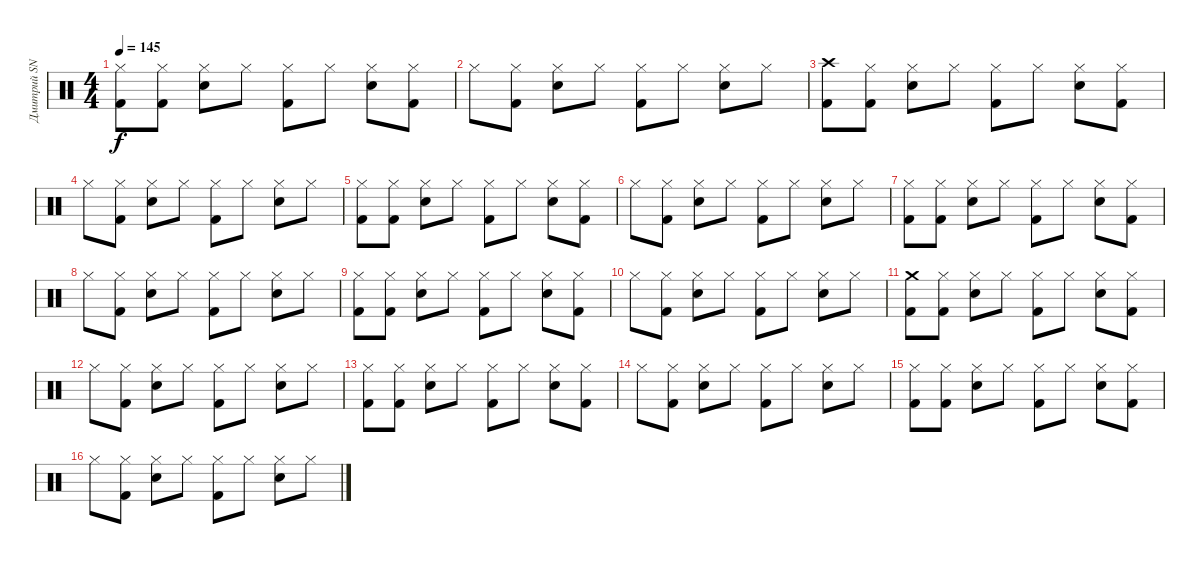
\track ("Дмитрий SNAKE Хакимов" "Дмитрий SN") {instrument percussion}
\staff {score}
\articulation defaults
\ts (4 4)
\tempo 145
\clef neutral
\ks c
("Hi-Hat (closed)" "Kick (hit) 2").8{dy f} ("Hi-Hat (closed)" "Kick (hit) 2").8 ("Hi-Hat (closed)" "Snare (hit) 2").8 "Hi-Hat (closed)".8 ("Hi-Hat (closed)" "Kick (hit) 2").8 "Hi-Hat (closed)".8 ("Hi-Hat (closed)" "Snare (hit) 2").8 ("Hi-Hat (closed)" "Kick (hit) 2").8 |
"Hi-Hat (closed)".8 ("Hi-Hat (closed)" "Kick (hit) 2").8 ("Hi-Hat (closed)" "Snare (hit) 2").8 "Hi-Hat (closed)".8 ("Hi-Hat (closed)" "Kick (hit) 2").8 "Hi-Hat (closed)".8 ("Hi-Hat (closed)" "Snare (hit) 2").8 "Hi-Hat (closed)".8 |
("Crash high (hit)" "Kick (hit) 2").8 ("Hi-Hat (closed)" "Kick (hit) 2").8 ("Hi-Hat (closed)" "Snare (hit) 2").8 "Hi-Hat (closed)".8 ("Hi-Hat (closed)" "Kick (hit) 2").8 "Hi-Hat (closed)".8 ("Hi-Hat (closed)" "Snare (hit) 2").8 ("Hi-Hat (closed)" "Kick (hit) 2").8 |
"Hi-Hat (closed)".8 ("Hi-Hat (closed)" "Kick (hit) 2").8 ("Hi-Hat (closed)" "Snare (hit) 2").8 "Hi-Hat (closed)".8 ("Hi-Hat (closed)" "Kick (hit) 2").8 "Hi-Hat (closed)".8 ("Hi-Hat (closed)" "Snare (hit) 2").8 "Hi-Hat (closed)".8 |
("Hi-Hat (closed)" "Kick (hit) 2").8 ("Hi-Hat (closed)" "Kick (hit) 2").8 ("Hi-Hat (closed)" "Snare (hit) 2").8 "Hi-Hat (closed)".8 ("Hi-Hat (closed)" "Kick (hit) 2").8 "Hi-Hat (closed)".8 ("Hi-Hat (closed)" "Snare (hit) 2").8 ("Hi-Hat (closed)" "Kick (hit) 2").8 |
"Hi-Hat (closed)".8 ("Hi-Hat (closed)" "Kick (hit) 2").8 ("Hi-Hat (closed)" "Snare (hit) 2").8 "Hi-Hat (closed)".8 ("Hi-Hat (closed)" "Kick (hit) 2").8 "Hi-Hat (closed)".8 ("Hi-Hat (closed)" "Snare (hit) 2").8 "Hi-Hat (closed)".8 |
("Hi-Hat (closed)" "Kick (hit) 2").8 ("Hi-Hat (closed)" "Kick (hit) 2").8 ("Hi-Hat (closed)" "Snare (hit) 2").8 "Hi-Hat (closed)".8 ("Hi-Hat (closed)" "Kick (hit) 2").8 "Hi-Hat (closed)".8 ("Hi-Hat (closed)" "Snare (hit) 2").8 ("Hi-Hat (closed)" "Kick (hit) 2").8 |
"Hi-Hat (closed)".8 ("Hi-Hat (closed)" "Kick (hit) 2").8 ("Hi-Hat (closed)" "Snare (hit) 2").8 "Hi-Hat (closed)".8 ("Hi-Hat (closed)" "Kick (hit) 2").8 "Hi-Hat (closed)".8 ("Hi-Hat (closed)" "Snare (hit) 2").8 "Hi-Hat (closed)".8 |
("Hi-Hat (closed)" "Kick (hit) 2").8 ("Hi-Hat (closed)" "Kick (hit) 2").8 ("Hi-Hat (closed)" "Snare (hit) 2").8 "Hi-Hat (closed)".8 ("Hi-Hat (closed)" "Kick (hit) 2").8 "Hi-Hat (closed)".8 ("Hi-Hat (closed)" "Snare (hit) 2").8 ("Hi-Hat (closed)" "Kick (hit) 2").8 |
"Hi-Hat (closed)".8 ("Hi-Hat (closed)" "Kick (hit) 2").8 ("Hi-Hat (closed)" "Snare (hit) 2").8 "Hi-Hat (closed)".8 ("Hi-Hat (closed)" "Kick (hit) 2").8 "Hi-Hat (closed)".8 ("Hi-Hat (closed)" "Snare (hit) 2").8 "Hi-Hat (closed)".8 |
("Crash medium (hit)" "Kick (hit) 2").8 ("Hi-Hat (closed)" "Kick (hit) 2").8 ("Hi-Hat (closed)" "Snare (hit) 2").8 "Hi-Hat (closed)".8 ("Hi-Hat (closed)" "Kick (hit) 2").8 "Hi-Hat (closed)".8 ("Hi-Hat (closed)" "Snare (hit) 2").8 ("Hi-Hat (closed)" "Kick (hit) 2").8 |
"Hi-Hat (closed)".8 ("Hi-Hat (closed)" "Kick (hit) 2").8 ("Hi-Hat (closed)" "Snare (hit) 2").8 "Hi-Hat (closed)".8 ("Hi-Hat (closed)" "Kick (hit) 2").8 "Hi-Hat (closed)".8 ("Hi-Hat (closed)" "Snare (hit) 2").8 "Hi-Hat (closed)".8 |
("Hi-Hat (closed)" "Kick (hit) 2").8 ("Hi-Hat (closed)" "Kick (hit) 2").8 ("Hi-Hat (closed)" "Snare (hit) 2").8 "Hi-Hat (closed)".8 ("Hi-Hat (closed)" "Kick (hit) 2").8 "Hi-Hat (closed)".8 ("Hi-Hat (closed)" "Snare (hit) 2").8 ("Hi-Hat (closed)" "Kick (hit) 2").8 |
"Hi-Hat (closed)".8 ("Hi-Hat (closed)" "Kick (hit) 2").8 ("Hi-Hat (closed)" "Snare (hit) 2").8 "Hi-Hat (closed)".8 ("Hi-Hat (closed)" "Kick (hit) 2").8 "Hi-Hat (closed)".8 ("Hi-Hat (closed)" "Snare (hit) 2").8 "Hi-Hat (closed)".8 |
("Hi-Hat (closed)" "Kick (hit) 2").8 ("Hi-Hat (closed)" "Kick (hit) 2").8 ("Hi-Hat (closed)" "Snare (hit) 2").8 "Hi-Hat (closed)".8 ("Hi-Hat (closed)" "Kick (hit) 2").8 "Hi-Hat (closed)".8 ("Hi-Hat (closed)" "Snare (hit) 2").8 ("Hi-Hat (closed)" "Kick (hit) 2").8 |
"Hi-Hat (closed)".8 ("Hi-Hat (closed)" "Kick (hit) 2").8 ("Hi-Hat (closed)" "Snare (hit) 2").8 "Hi-Hat (closed)".8 ("Hi-Hat (closed)" "Kick (hit) 2").8 "Hi-Hat (closed)".8 ("Hi-Hat (closed)" "Snare (hit) 2").8 "Hi-Hat (closed)".8
